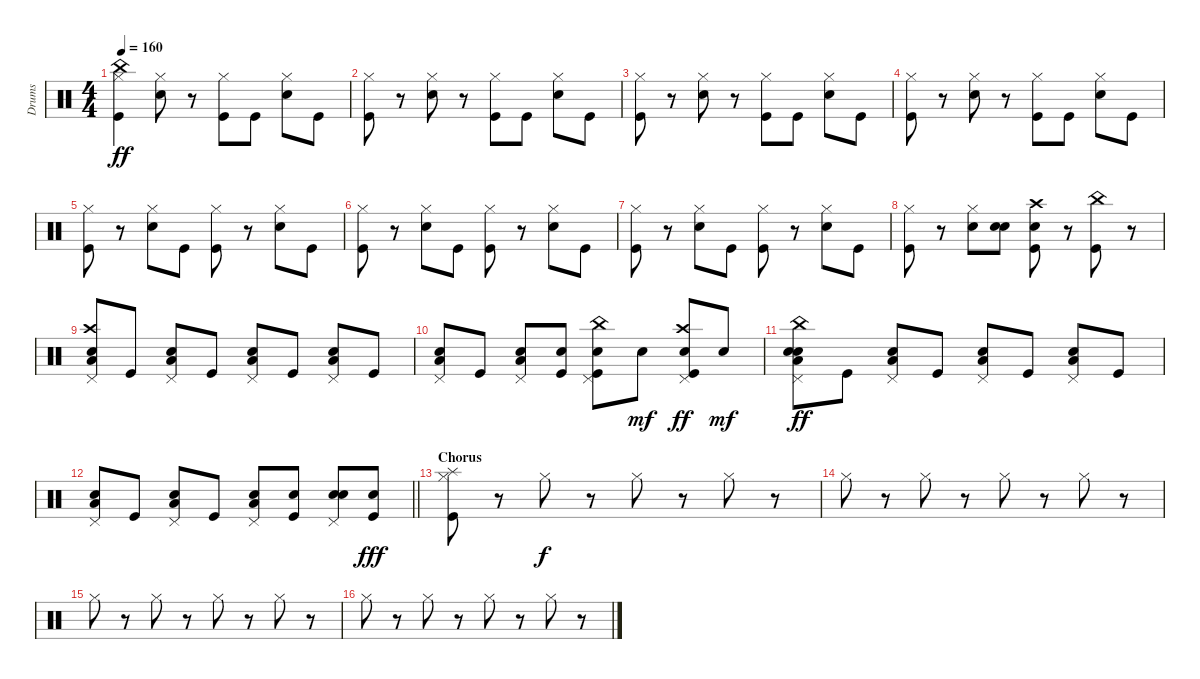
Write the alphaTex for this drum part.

\track ("Drums" "Drums") {instrument percussion}
\staff {score}
\articulation defaults
\ts (4 4)
\tempo 160
\clef neutral
\ks c
("China (hit)" "Hi-Hat (closed)" "Kick (hit)").4{dy ff} ("Hi-Hat (closed)" "Snare (hit) 2").8 r.8 ("Hi-Hat (closed)" "Kick (hit)").8 "Kick (hit)".8 ("Hi-Hat (closed)" "Snare (hit) 2").8 "Kick (hit)".8 |
("Hi-Hat (closed)" "Kick (hit)").8 r.8 ("Hi-Hat (closed)" "Snare (hit) 2").8 r.8 ("Hi-Hat (closed)" "Kick (hit)").8 "Kick (hit)".8 ("Hi-Hat (closed)" "Snare (hit) 2").8 "Kick (hit)".8 |
("Hi-Hat (closed)" "Kick (hit)").8 r.8 ("Hi-Hat (closed)" "Snare (hit) 2").8 r.8 ("Hi-Hat (closed)" "Kick (hit)").8 "Kick (hit)".8 ("Hi-Hat (closed)" "Snare (hit) 2").8 "Kick (hit)".8 |
("Hi-Hat (closed)" "Kick (hit)").8 r.8 ("Hi-Hat (closed)" "Snare (hit) 2").8 r.8 ("Hi-Hat (closed)" "Kick (hit)").8 "Kick (hit)".8 ("Hi-Hat (closed)" "Snare (hit) 2").8 "Kick (hit)".8 |
("Kick (hit)" "Hi-Hat (closed)").8 r.8 ("Hi-Hat (closed)" "Snare (hit) 2").8 "Kick (hit)".8 ("Hi-Hat (closed)" "Kick (hit)").8 r.8 ("Hi-Hat (closed)" "Snare (hit) 2").8 "Kick (hit)".8 |
("Hi-Hat (closed)" "Kick (hit)").8 r.8 ("Hi-Hat (closed)" "Snare (hit) 2").8 "Kick (hit)".8 ("Hi-Hat (closed)" "Kick (hit)").8 r.8 ("Hi-Hat (closed)" "Snare (hit) 2").8 "Kick (hit)".8 |
("Kick (hit)" "Hi-Hat (closed)").8 r.8 ("Hi-Hat (closed)" "Snare (hit) 2").8 "Kick (hit)".8 ("Hi-Hat (closed)" "Kick (hit)").8 r.8 ("Hi-Hat (closed)" "Snare (hit) 2").8 "Kick (hit)".8 |
("Hi-Hat (closed)" "Kick (hit)").8 r.8 ("Hi-Hat (closed)" "Snare (hit) 2").8 ("Snare (hit) 2" "Snare (hit) 2").8 ("Snare (hit) 2" "Crash high (hit)" "Kick (hit)").8 r.8 ("Kick (hit)" "China (hit)").8 r.8 |
("Crash high (hit)" "Pedal Hi-Hat (hit)" "Snare (hit) 2" "Low Floor Tom (hit)").8 "Kick (hit)".8 ("Snare (hit) 2" "Pedal Hi-Hat (hit)" "Low Floor Tom (hit)").8 "Kick (hit)".8 ("Snare (hit) 2" "Pedal Hi-Hat (hit)" "Low Floor Tom (hit)").8 "Kick (hit)".8 ("Snare (hit) 2" "Pedal Hi-Hat (hit)" "Low Floor Tom (hit)").8 "Kick (hit)".8 |
("Snare (hit) 2" "Pedal Hi-Hat (hit)" "Low Floor Tom (hit)").8 "Kick (hit)".8 ("Snare (hit) 2" "Pedal Hi-Hat (hit)" "Low Floor Tom (hit)").8 ("Snare (hit) 2" "Kick (hit)").8 ("Snare (hit) 2" "Kick (hit)" "China (hit)" "Pedal Hi-Hat (hit)").8 "Snare (hit) 2".8{dy mf} ("Snare (hit) 2" "Crash high (hit)" "Pedal Hi-Hat (hit)" "Kick (hit)").8{dy ff} "Snare (hit) 2".8{dy mf} |
("Snare (hit) 2" "Snare (hit) 2" "China (hit)" "Pedal Hi-Hat (hit)" "Low Floor Tom (hit)").8{dy ff} "Kick (hit)".8 ("Snare (hit) 2" "Pedal Hi-Hat (hit)" "Low Floor Tom (hit)").8 "Kick (hit)".8 ("Snare (hit) 2" "Pedal Hi-Hat (hit)" "Low Floor Tom (hit)").8 "Kick (hit)".8 ("Snare (hit) 2" "Pedal Hi-Hat (hit)" "Low Floor Tom (hit)").8 "Kick (hit)".8 |
\barLineRight lightlight
("Snare (hit) 2" "Pedal Hi-Hat (hit)" "Low Floor Tom (hit)").8 "Kick (hit)".8 ("Snare (hit) 2" "Pedal Hi-Hat (hit)" "Low Floor Tom (hit)").8 "Kick (hit)".8 ("Snare (hit) 2" "Pedal Hi-Hat (hit)" "Low Floor Tom (hit)").8 ("Snare (hit) 2" "Kick (hit)").8 ("Snare (hit) 2" "Pedal Hi-Hat (hit)" "Snare (hit) 2").8 ("Snare (hit) 2" "Kick (hit)").8{dy fff} |
\section ("" "Chorus")
("Kick (hit)" "Splash (hit)" "Hi-Hat (closed)").8 r.8 "Hi-Hat (closed)".8{dy f} r.8 "Hi-Hat (closed)".8 r.8 "Hi-Hat (closed)".8 r.8 |
"Hi-Hat (closed)".8 r.8 "Hi-Hat (closed)".8 r.8 "Hi-Hat (closed)".8 r.8 "Hi-Hat (closed)".8 r.8 |
"Hi-Hat (closed)".8 r.8 "Hi-Hat (closed)".8 r.8 "Hi-Hat (closed)".8 r.8 "Hi-Hat (closed)".8 r.8 |
"Hi-Hat (closed)".8 r.8 "Hi-Hat (closed)".8 r.8 "Hi-Hat (closed)".8 r.8 "Hi-Hat (closed)".8 r.8
